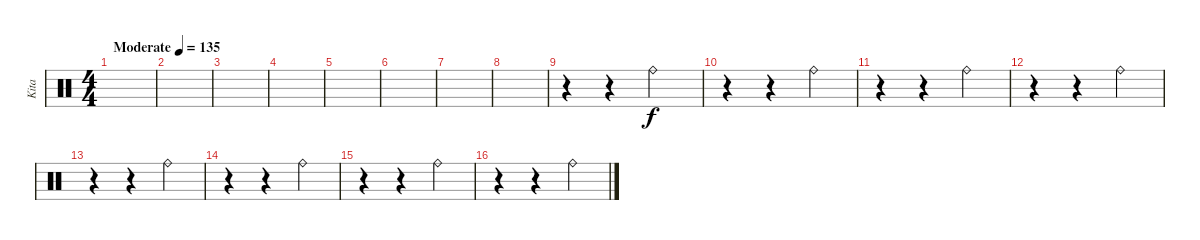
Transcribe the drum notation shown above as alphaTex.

\track ("Kita" "Kita") {instrument percussion}
\staff {score}
\articulation defaults
\ts (4 4)
\tempo (135 "Moderate")
\clef neutral
\ks c
|
|
|
|
|
|
|
|
r.4 r.4 "Ride (bell)".2 |
r.4 r.4 "Ride (bell)".4 |
r.4 r.4 "Ride (bell)".4 |
r.4 r.4 "Ride (bell)".4 |
r.4 r.4 "Ride (bell)".4 |
r.4 r.4 "Ride (bell)".4 |
r.4 r.4 "Ride (bell)".4 |
r.4 r.4 "Ride (bell)".4
